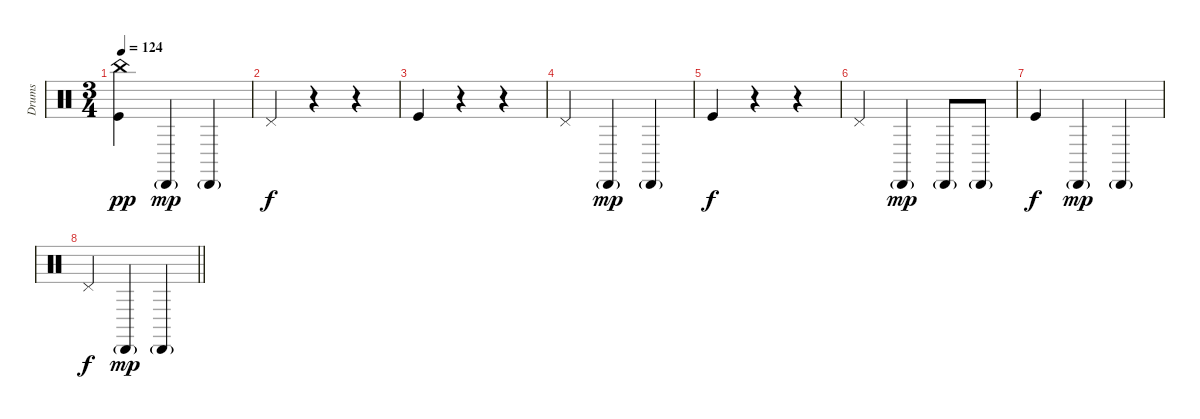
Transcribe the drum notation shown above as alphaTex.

\track ("Drums" "Drums") {instrument percussion}
\staff {score}
\articulation defaults
\ts (3 4)
\tempo 124
\clef neutral
\ks c
("China (hit)" "Kick (hit)").4{dy pp} "Cabasa (hit)"{g}.4{dy mp} "Cabasa (hit)"{g}.4 |
"Pedal Hi-Hat (hit)".4{dy f} r.4 r.4 |
"Kick (hit)".4 r.4 r.4 |
"Pedal Hi-Hat (hit)".4 "Cabasa (hit)"{g}.4{dy mp} "Cabasa (hit)"{g}.4 |
"Kick (hit)".4{dy f} r.4 r.4 |
"Pedal Hi-Hat (hit)".4 "Cabasa (hit)"{g}.4{dy mp} "Cabasa (hit)"{g}.8 "Cabasa (hit)"{g}.8 |
"Kick (hit)".4{dy f} "Cabasa (hit)"{g}.4{dy mp} "Cabasa (hit)"{g}.4 |
\barLineRight lightlight "Pedal Hi-Hat (hit)".4{dy f} "Cabasa (hit)"{g}.4{dy mp} "Cabasa (hit)"{g}.4
